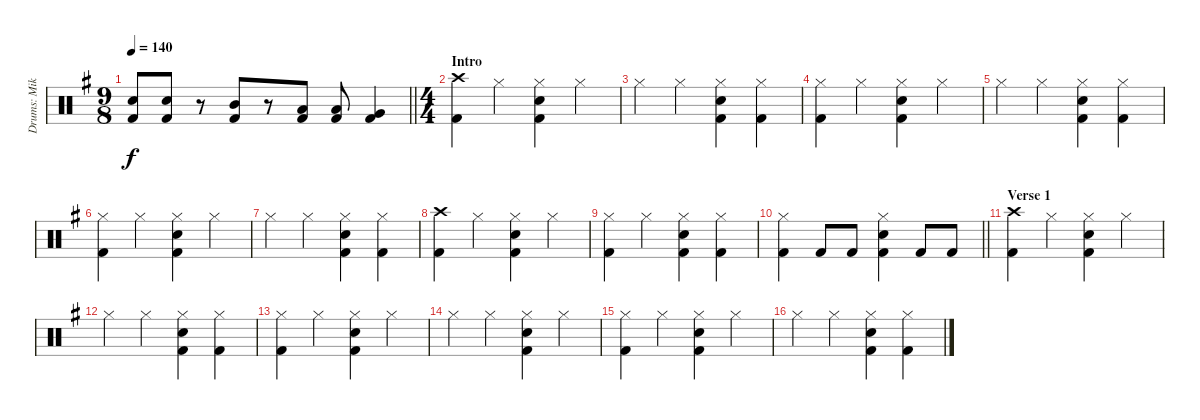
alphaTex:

\track ("Drums: Mike Terrana" "Drums: Mik") {instrument percussion}
\staff {score}
\articulation defaults
\ts (9 8)
\tempo 140
\clef neutral
\barLineRight lightlight
\ks eminor
("Electric Snare (hit)" "Kick (hit) 2").8{dy f} ("Electric Snare (hit)" "Kick (hit) 2").8 r.8 ("Mid Tom (hit)" "Kick (hit) 2").8 r.8 ("Low Tom (hit)" "Kick (hit) 2").8 ("Low Tom (hit)" "Kick (hit) 2").8 ("Very Low Tom (hit)" "Kick (hit) 2").4 |
\ts (4 4)
\section ("" "Intro")
("Crash high (hit)" "Kick (hit) 2").4 "Hi-Hat (closed)".4 ("Hi-Hat (closed)" "Electric Snare (hit)" "Kick (hit) 2").4 "Hi-Hat (closed)".4 |
"Hi-Hat (closed)".4 "Hi-Hat (closed)".4 ("Hi-Hat (closed)" "Electric Snare (hit)" "Kick (hit) 2").4 ("Hi-Hat (closed)" "Kick (hit) 2").4 |
("Hi-Hat (closed)" "Kick (hit) 2").4 "Hi-Hat (closed)".4 ("Hi-Hat (closed)" "Electric Snare (hit)" "Kick (hit) 2").4 "Hi-Hat (closed)".4 |
"Hi-Hat (closed)".4 "Hi-Hat (closed)".4 ("Hi-Hat (closed)" "Electric Snare (hit)" "Kick (hit) 2").4 ("Hi-Hat (closed)" "Kick (hit) 2").4 |
("Hi-Hat (closed)" "Kick (hit) 2").4 "Hi-Hat (closed)".4 ("Hi-Hat (closed)" "Electric Snare (hit)" "Kick (hit) 2").4 "Hi-Hat (closed)".4 |
"Hi-Hat (closed)".4 "Hi-Hat (closed)".4 ("Hi-Hat (closed)" "Electric Snare (hit)" "Kick (hit) 2").4 ("Hi-Hat (closed)" "Kick (hit) 2").4 |
("Crash high (hit)" "Kick (hit) 2").4 "Hi-Hat (closed)".4 ("Hi-Hat (closed)" "Electric Snare (hit)" "Kick (hit) 2").4 "Hi-Hat (closed)".4 |
("Hi-Hat (closed)" "Kick (hit) 2").4 "Hi-Hat (closed)".4 ("Hi-Hat (closed)" "Electric Snare (hit)" "Kick (hit) 2").4 ("Hi-Hat (closed)" "Kick (hit) 2").4 |
\barLineRight lightlight
("Hi-Hat (closed)" "Kick (hit) 2").4 "Kick (hit) 2".8 "Kick (hit) 2".8 ("Hi-Hat (closed)" "Electric Snare (hit)" "Kick (hit) 2").4 "Kick (hit) 2".8 "Kick (hit) 2".8 |
\section ("" "Verse 1")
("Crash high (hit)" "Kick (hit) 2").4 "Hi-Hat (closed)".4 ("Hi-Hat (closed)" "Electric Snare (hit)" "Kick (hit) 2").4 "Hi-Hat (closed)".4 |
"Hi-Hat (closed)".4 "Hi-Hat (closed)".4 ("Hi-Hat (closed)" "Electric Snare (hit)" "Kick (hit) 2").4 ("Hi-Hat (closed)" "Kick (hit) 2").4 |
("Hi-Hat (closed)" "Kick (hit) 2").4 "Hi-Hat (closed)".4 ("Hi-Hat (closed)" "Electric Snare (hit)" "Kick (hit) 2").4 "Hi-Hat (closed)".4 |
"Hi-Hat (closed)".4 "Hi-Hat (closed)".4 ("Hi-Hat (closed)" "Electric Snare (hit)" "Kick (hit) 2").4 "Hi-Hat (closed)".4 |
("Hi-Hat (closed)" "Kick (hit) 2").4 "Hi-Hat (closed)".4 ("Hi-Hat (closed)" "Electric Snare (hit)" "Kick (hit) 2").4 "Hi-Hat (closed)".4 |
"Hi-Hat (closed)".4 "Hi-Hat (closed)".4 ("Hi-Hat (closed)" "Electric Snare (hit)" "Kick (hit) 2").4 ("Hi-Hat (closed)" "Kick (hit) 2").4
